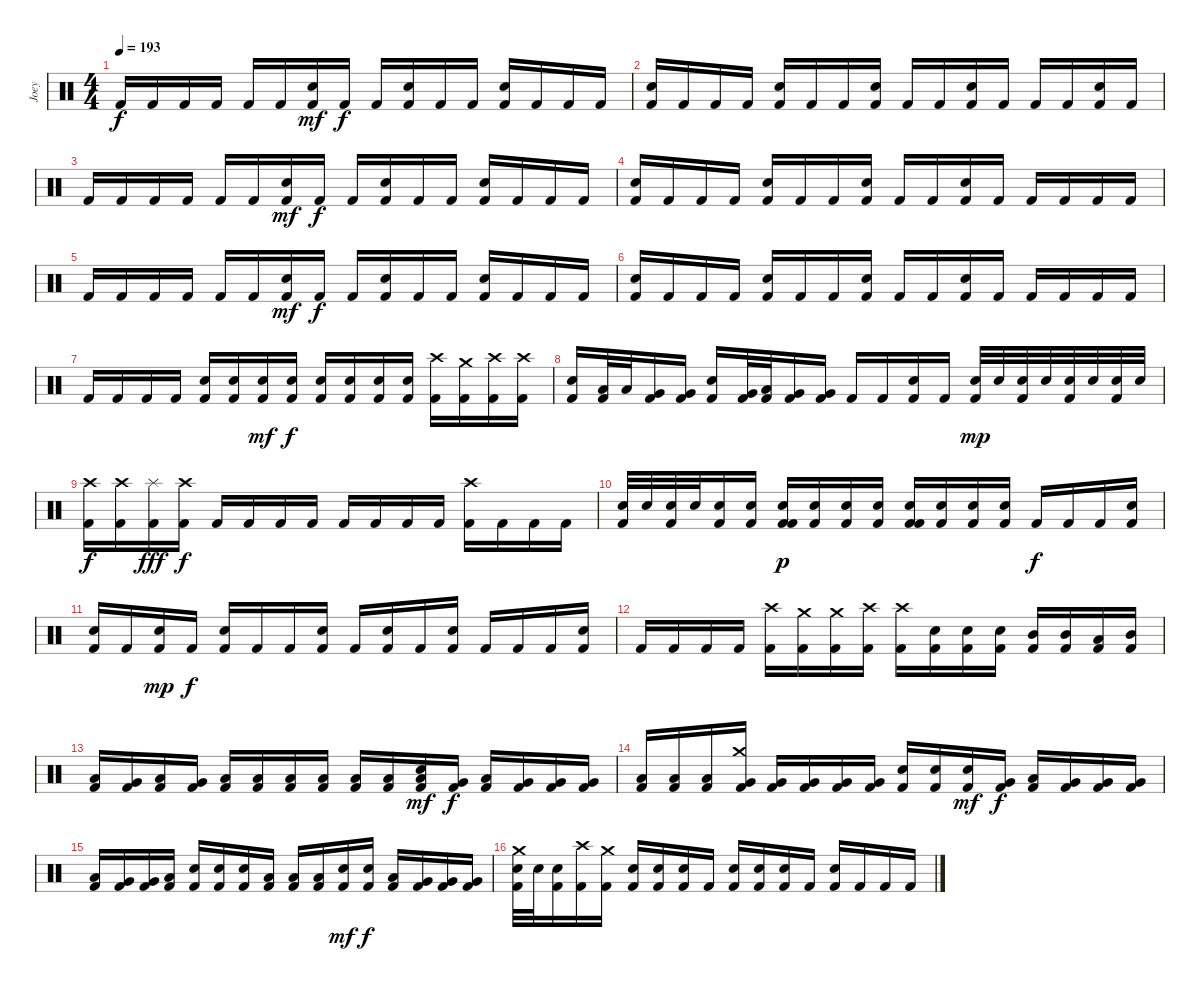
\track ("Joey" "Joey") {instrument percussion}
\staff {score}
\articulation defaults
\ts (4 4)
\tempo 193
\clef neutral
\ks c "Kick (hit) 2".16{dy f} "Kick (hit) 2".16 "Kick (hit) 2".16 "Kick (hit) 2".16 "Kick (hit) 2".16 "Kick (hit) 2".16
("Electric Snare (hit)" "Kick (hit) 2").16{dy mf} "Kick (hit) 2".16{dy f} "Kick (hit) 2".16 ("Electric Snare (hit)" "Kick (hit) 2").16 "Kick (hit) 2".16 "Kick (hit) 2".16 ("Electric Snare (hit)" "Kick (hit) 2").16 "Kick (hit) 2".16 "Kick (hit) 2".16 "Kick (hit) 2".16 |
("Electric Snare (hit)" "Kick (hit) 2").16 "Kick (hit) 2".16 "Kick (hit) 2".16 "Kick (hit) 2".16 ("Electric Snare (hit)" "Kick (hit) 2").16 "Kick (hit) 2".16 "Kick (hit) 2".16 ("Electric Snare (hit)" "Kick (hit) 2").16 "Kick (hit) 2".16 "Kick (hit) 2".16 ("Electric Snare (hit)" "Kick (hit) 2").16 "Kick (hit) 2".16 "Kick (hit) 2".16 "Kick (hit) 2".16 ("Electric Snare (hit)" "Kick (hit) 2").16 "Kick (hit) 2".16 |
"Kick (hit) 2".16 "Kick (hit) 2".16 "Kick (hit) 2".16 "Kick (hit) 2".16 "Kick (hit) 2".16 "Kick (hit) 2".16 ("Electric Snare (hit)" "Kick (hit) 2").16{dy mf} "Kick (hit) 2".16{dy f} "Kick (hit) 2".16 ("Electric Snare (hit)" "Kick (hit) 2").16 "Kick (hit) 2".16 "Kick (hit) 2".16 ("Electric Snare (hit)" "Kick (hit) 2").16 "Kick (hit) 2".16 "Kick (hit) 2".16 "Kick (hit) 2".16 |
("Electric Snare (hit)" "Kick (hit) 2").16 "Kick (hit) 2".16 "Kick (hit) 2".16 "Kick (hit) 2".16 ("Electric Snare (hit)" "Kick (hit) 2").16 "Kick (hit) 2".16 "Kick (hit) 2".16 ("Electric Snare (hit)" "Kick (hit) 2").16 "Kick (hit) 2".16 "Kick (hit) 2".16 ("Electric Snare (hit)" "Kick (hit) 2").16 "Kick (hit) 2".16 "Kick (hit) 2".16 "Kick (hit) 2".16 "Kick (hit) 2".16 "Kick (hit) 2".16 |
"Kick (hit) 2".16 "Kick (hit) 2".16 "Kick (hit) 2".16 "Kick (hit) 2".16 "Kick (hit) 2".16 "Kick (hit) 2".16 ("Electric Snare (hit)" "Kick (hit) 2").16{dy mf} "Kick (hit) 2".16{dy f} "Kick (hit) 2".16 ("Electric Snare (hit)" "Kick (hit) 2").16 "Kick (hit) 2".16 "Kick (hit) 2".16 ("Electric Snare (hit)" "Kick (hit) 2").16 "Kick (hit) 2".16 "Kick (hit) 2".16 "Kick (hit) 2".16 |
("Electric Snare (hit)" "Kick (hit) 2").16 "Kick (hit) 2".16 "Kick (hit) 2".16 "Kick (hit) 2".16 ("Electric Snare (hit)" "Kick (hit) 2").16 "Kick (hit) 2".16 "Kick (hit) 2".16 ("Electric Snare (hit)" "Kick (hit) 2").16 "Kick (hit) 2".16 "Kick (hit) 2".16 ("Electric Snare (hit)" "Kick (hit) 2").16 "Kick (hit) 2".16 "Kick (hit) 2".16 "Kick (hit) 2".16 "Kick (hit) 2".16 "Kick (hit) 2".16 |
"Kick (hit) 2".16 "Kick (hit) 2".16 "Kick (hit) 2".16 "Kick (hit) 2".16 ("Electric Snare (hit)" "Kick (hit) 2").16 ("Electric Snare (hit)" "Kick (hit) 2").16 ("Electric Snare (hit)" "Kick (hit) 2").16{dy mf} ("Electric Snare (hit)" "Kick (hit) 2").16{dy f} ("Electric Snare (hit)" "Kick (hit) 2").16 ("Electric Snare (hit)" "Kick (hit) 2").16 ("Electric Snare (hit)" "Kick (hit) 2").16 ("Electric Snare (hit)" "Kick (hit) 2").16 ("Crash high (hit)" "Kick (hit) 2").16 ("Crash medium (hit)" "Kick (hit) 2").16 ("Crash high (hit)" "Kick (hit) 2").16 ("Crash high (hit)" "Kick (hit) 2").16 |
("Electric Snare (hit)" "Kick (hit) 2").16 ("Low Tom (hit)" "Kick (hit) 2").32 "Low Tom (hit)".32 ("Very Low Tom (hit)" "Kick (hit) 2").16 ("Very Low Tom (hit)" "Kick (hit) 2").16 ("Electric Snare (hit)" "Kick (hit) 2").16 ("Very Low Tom (hit)" "Kick (hit) 2").32 ("Low Floor Tom (hit)" "Kick (hit) 2").32 ("Very Low Tom (hit)" "Kick (hit) 2").16 ("Very Low Tom (hit)" "Kick (hit) 2").16 "Kick (hit) 2".16 "Kick (hit) 2".16 ("Electric Snare (hit)" "Kick (hit) 2").16 "Kick (hit) 2".16 ("Electric Snare (hit)" "Kick (hit) 2").32{dy mp} "Electric Snare (hit)".32 ("Electric Snare (hit)" "Kick (hit) 2").32 "Electric Snare (hit)".32 ("Electric Snare (hit)" "Kick (hit) 2").32 "Electric Snare (hit)".32 ("Electric Snare (hit)" "Kick (hit) 2").32 "Electric Snare (hit)".32 |
("Crash high (hit)" "Kick (hit) 2").16{dy f} ("Crash high (hit)" "Kick (hit) 2").16 ("Splash (hit)" "Kick (hit) 2").16{dy fff} ("Crash high (hit)" "Kick (hit) 2").16{dy f} "Kick (hit) 2".16 "Kick (hit) 2".16 "Kick (hit) 2".16 "Kick (hit) 2".16 "Kick (hit) 2".16 "Kick (hit) 2".16 "Kick (hit) 2".16 "Kick (hit) 2".16 ("Crash high (hit)" "Kick (hit) 2").16 "Kick (hit) 2".16 "Kick (hit) 2".16 "Kick (hit) 2".16 |
("Electric Snare (hit)" "Kick (hit) 2").32 "Electric Snare (hit)".32 ("Electric Snare (hit)" "Kick (hit) 2").32 "Electric Snare (hit)".32 ("Electric Snare (hit)" "Kick (hit) 2").16 ("Electric Snare (hit)" "Kick (hit) 2").16 ("Electric Snare (hit)" "Kick (hit) 2" "Kick (hit) 2").16{dy p} ("Electric Snare (hit)" "Kick (hit) 2").16 ("Electric Snare (hit)" "Kick (hit) 2").16 ("Electric Snare (hit)" "Kick (hit) 2").16 ("Electric Snare (hit)" "Kick (hit) 2" "Kick (hit) 2").16 ("Electric Snare (hit)" "Kick (hit) 2").16 ("Electric Snare (hit)" "Kick (hit) 2").16 ("Electric Snare (hit)" "Kick (hit) 2").16 "Kick (hit) 2".16{dy f} "Kick (hit) 2".16 "Kick (hit) 2".16 ("Electric Snare (hit)" "Kick (hit) 2").16 |
("Electric Snare (hit)" "Kick (hit) 2").16 "Kick (hit) 2".16 ("Electric Snare (hit)" "Kick (hit) 2").16{dy mp} "Kick (hit) 2".16{dy f} ("Electric Snare (hit)" "Kick (hit) 2").16 "Kick (hit) 2".16 "Kick (hit) 2".16 ("Electric Snare (hit)" "Kick (hit) 2").16 "Kick (hit) 2".16 ("Electric Snare (hit)" "Kick (hit) 2").16 "Kick (hit) 2".16 ("Electric Snare (hit)" "Kick (hit) 2").16 "Kick (hit) 2".16 "Kick (hit) 2".16 "Kick (hit) 2".16 ("Electric Snare (hit)" "Kick (hit) 2").16 |
"Kick (hit) 2".16 "Kick (hit) 2".16 "Kick (hit) 2".16 "Kick (hit) 2".16 ("Crash high (hit)" "Kick (hit) 2").16 ("Crash medium (hit)" "Kick (hit) 2").16 ("Crash medium (hit)" "Kick (hit) 2").16 ("Crash high (hit)" "Kick (hit) 2").16 ("Crash high (hit)" "Kick (hit) 2").16 ("Electric Snare (hit)" "Kick (hit) 2").16 ("Electric Snare (hit)" "Kick (hit) 2").16 ("Electric Snare (hit)" "Kick (hit) 2").16 ("Mid Tom (hit)" "Kick (hit) 2").16 ("Mid Tom (hit)" "Kick (hit) 2").16 ("Low Tom (hit)" "Kick (hit) 2").16 ("Mid Tom (hit)" "Kick (hit) 2").16 |
("Low Tom (hit)" "Kick (hit) 2").16 ("Very Low Tom (hit)" "Kick (hit) 2").16 ("Low Tom (hit)" "Kick (hit) 2").16 ("Very Low Tom (hit)" "Kick (hit) 2").16 ("Low Floor Tom (hit)" "Kick (hit) 2").16 ("Low Floor Tom (hit)" "Kick (hit) 2").16 ("Low Floor Tom (hit)" "Kick (hit) 2").16 ("Low Tom (hit)" "Kick (hit) 2").16 ("Low Floor Tom (hit)" "Kick (hit) 2").16 ("Low Floor Tom (hit)" "Kick (hit) 2").16 ("Electric Snare (hit)" "Low Floor Tom (hit)" "Kick (hit) 2").16{dy mf} ("Very Low Tom (hit)" "Kick (hit) 2").16{dy f} ("Low Floor Tom (hit)" "Kick (hit) 2").16 ("Very Low Tom (hit)" "Kick (hit) 2").16 ("Very Low Tom (hit)" "Kick (hit) 2").16 ("Very Low Tom (hit)" "Kick (hit) 2").16 |
("Low Floor Tom (hit)" "Kick (hit) 2").16 ("Low Floor Tom (hit)" "Kick (hit) 2").16 ("Low Floor Tom (hit)" "Kick (hit) 2").16 ("Crash medium (hit)" "Very Low Tom (hit)" "Kick (hit) 2").16 ("Very Low Tom (hit)" "Kick (hit) 2").16 ("Very Low Tom (hit)" "Kick (hit) 2").16 ("Very Low Tom (hit)" "Kick (hit) 2").16 ("Very Low Tom (hit)" "Kick (hit) 2").16 ("Electric Snare (hit)" "Kick (hit) 2").16 ("Electric Snare (hit)" "Kick (hit) 2").16 ("Electric Snare (hit)" "Kick (hit) 2").16{dy mf} ("Very Low Tom (hit)" "Kick (hit) 2").16{dy f} ("Low Floor Tom (hit)" "Kick (hit) 2").16 ("Very Low Tom (hit)" "Kick (hit) 2").16 ("Very Low Tom (hit)" "Kick (hit) 2").16 ("Very Low Tom (hit)" "Kick (hit) 2").16 |
("Low Tom (hit)" "Kick (hit) 2").16 ("Very Low Tom (hit)" "Kick (hit) 2").16 ("Very Low Tom (hit)" "Kick (hit) 2").16 ("Low Floor Tom (hit)" "Kick (hit) 2").16 ("Electric Snare (hit)" "Kick (hit) 2").16 ("Electric Snare (hit)" "Kick (hit) 2").16 ("Electric Snare (hit)" "Kick (hit) 2").16 ("Low Tom (hit)" "Kick (hit) 2").16 ("Low Floor Tom (hit)" "Kick (hit) 2").16 ("Low Floor Tom (hit)" "Kick (hit) 2").16 ("Electric Snare (hit)" "Kick (hit) 2").16{dy mf} ("Electric Snare (hit)" "Kick (hit) 2").16{dy f} ("Low Floor Tom (hit)" "Kick (hit) 2").16 ("Very Low Tom (hit)" "Kick (hit) 2").16 ("Very Low Tom (hit)" "Kick (hit) 2").16 ("Very Low Tom (hit)" "Kick (hit) 2").16 |
("Crash medium (hit)" "Electric Snare (hit)" "Kick (hit) 2").32 "Electric Snare (hit)".32 ("Electric Snare (hit)" "Kick (hit) 2").16 ("Crash high (hit)" "Kick (hit) 2").16 ("Crash medium (hit)" "Kick (hit) 2").16 ("Electric Snare (hit)" "Kick (hit) 2").16 ("Electric Snare (hit)" "Kick (hit) 2").16 ("Electric Snare (hit)" "Kick (hit) 2").16 "Kick (hit) 2".16 ("Electric Snare (hit)" "Kick (hit) 2").16 ("Electric Snare (hit)" "Kick (hit) 2").16 ("Electric Snare (hit)" "Kick (hit) 2").16 "Kick (hit) 2".16 ("Electric Snare (hit)" "Kick (hit) 2").16 "Kick (hit) 2".16 "Kick (hit) 2".16 "Kick (hit) 2".16
